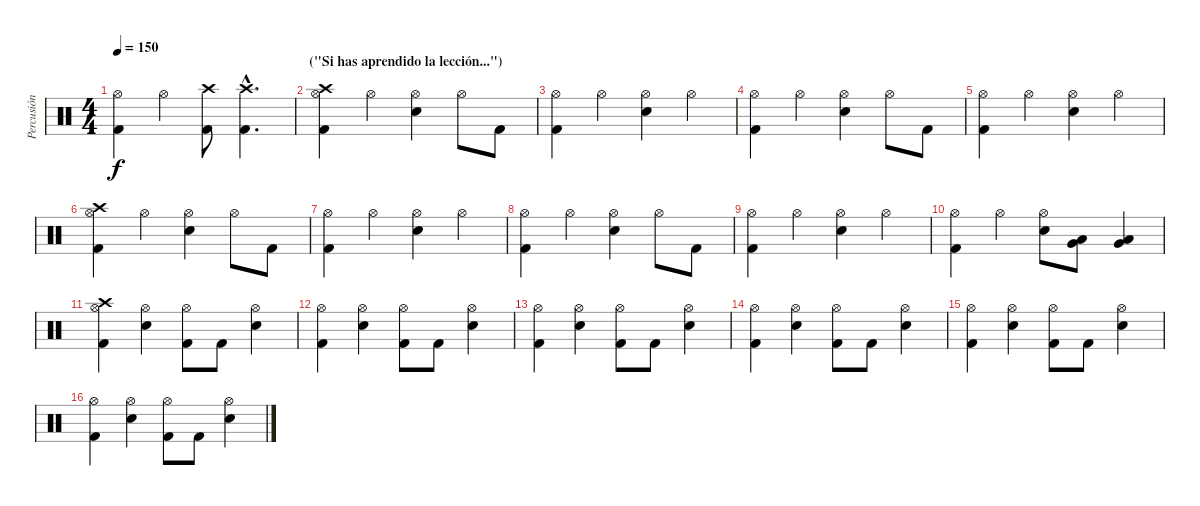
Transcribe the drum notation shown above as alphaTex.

\track ("Percusión" "Percusión") {instrument percussion}
\staff {score}
\articulation defaults
\ts (4 4)
\tempo 150
\clef neutral
\ks c
("Hi-Hat (open)" "Kick (hit) 2").4{dy f} "Hi-Hat (open)".4 ("Crash high (hit)" "Kick (hit) 2").8 ("Crash high (hit)"{hac} "Kick (hit) 2"{hac}).4{d} |
\section ("" "(\"Si has aprendido la lección...\")")
("Crash high (hit)" "Hi-Hat (open)" "Kick (hit) 2").4 "Hi-Hat (open)".4 ("Hi-Hat (open)" "Snare (hit) 2").4 "Hi-Hat (open)".8 "Kick (hit) 2".8 |
("Hi-Hat (open)" "Kick (hit) 2").4 "Hi-Hat (open)".4 ("Hi-Hat (open)" "Snare (hit) 2").4 "Hi-Hat (open)".4 |
("Hi-Hat (open)" "Kick (hit) 2").4 "Hi-Hat (open)".4 ("Hi-Hat (open)" "Snare (hit) 2").4 "Hi-Hat (open)".8 "Kick (hit) 2".8 |
("Hi-Hat (open)" "Kick (hit) 2").4 "Hi-Hat (open)".4 ("Hi-Hat (open)" "Snare (hit) 2").4 "Hi-Hat (open)".4 |
("Crash high (hit)" "Hi-Hat (open)" "Kick (hit) 2").4 "Hi-Hat (open)".4 ("Hi-Hat (open)" "Snare (hit) 2").4 "Hi-Hat (open)".8 "Kick (hit) 2".8 |
("Hi-Hat (open)" "Kick (hit) 2").4 "Hi-Hat (open)".4 ("Hi-Hat (open)" "Snare (hit) 2").4 "Hi-Hat (open)".4 |
("Hi-Hat (open)" "Kick (hit) 2").4 "Hi-Hat (open)".4 ("Hi-Hat (open)" "Snare (hit) 2").4 "Hi-Hat (open)".8 "Kick (hit) 2".8 |
("Hi-Hat (open)" "Kick (hit) 2").4 "Hi-Hat (open)".4 ("Hi-Hat (open)" "Snare (hit) 2").4 "Hi-Hat (open)".4 |
("Hi-Hat (open)" "Kick (hit) 2").4 "Hi-Hat (open)".4 ("Hi-Hat (open)" "Snare (hit) 2").8 ("Very Low Tom (hit)" "Low Floor Tom (hit)").8 ("Very Low Tom (hit)" "Low Floor Tom (hit)").4 |
("Crash high (hit)" "Hi-Hat (open)" "Kick (hit) 2").4 ("Hi-Hat (open)" "Snare (hit) 2").4 ("Hi-Hat (open)" "Kick (hit) 2").8 "Kick (hit) 2".8 ("Hi-Hat (open)" "Snare (hit) 2").4 |
("Hi-Hat (open)" "Kick (hit) 2").4 ("Hi-Hat (open)" "Snare (hit) 2").4 ("Hi-Hat (open)" "Kick (hit) 2").8 "Kick (hit) 2".8 ("Hi-Hat (open)" "Snare (hit) 2").4 |
("Hi-Hat (open)" "Kick (hit) 2").4 ("Hi-Hat (open)" "Snare (hit) 2").4 ("Hi-Hat (open)" "Kick (hit) 2").8 "Kick (hit) 2".8 ("Hi-Hat (open)" "Snare (hit) 2").4 |
("Hi-Hat (open)" "Kick (hit) 2").4 ("Hi-Hat (open)" "Snare (hit) 2").4 ("Hi-Hat (open)" "Kick (hit) 2").8 "Kick (hit) 2".8 ("Hi-Hat (open)" "Snare (hit) 2").4 |
("Hi-Hat (open)" "Kick (hit) 2").4 ("Hi-Hat (open)" "Snare (hit) 2").4 ("Hi-Hat (open)" "Kick (hit) 2").8 "Kick (hit) 2".8 ("Hi-Hat (open)" "Snare (hit) 2").4 |
("Hi-Hat (open)" "Kick (hit) 2").4 ("Hi-Hat (open)" "Snare (hit) 2").4 ("Hi-Hat (open)" "Kick (hit) 2").8 "Kick (hit) 2".8 ("Hi-Hat (open)" "Snare (hit) 2").4
